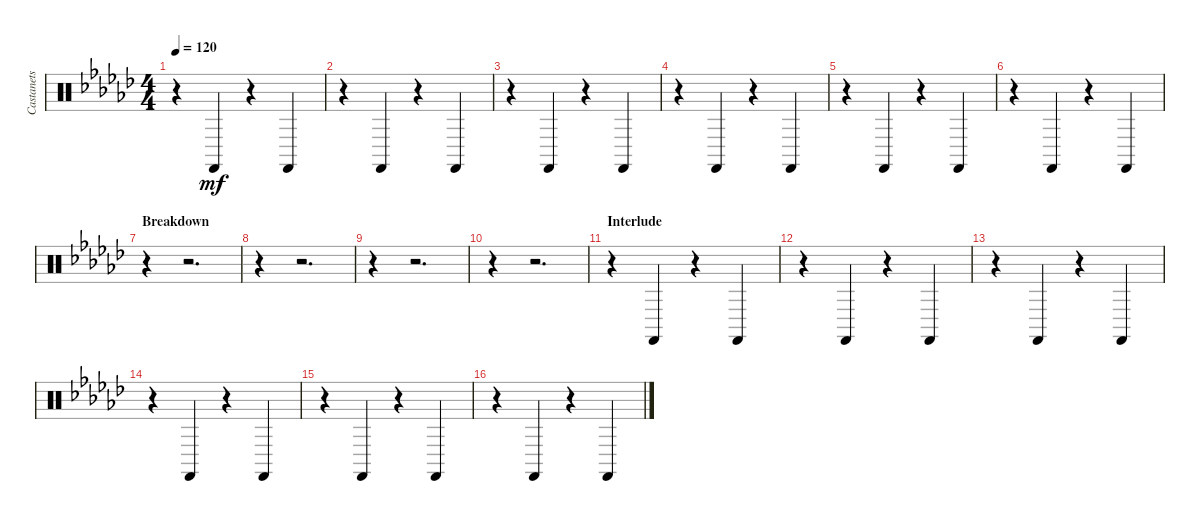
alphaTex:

\track ("Castanets" "Castanets") {instrument percussion}
\staff {score}
\articulation defaults
\ts (4 4)
\tempo 120
\clef neutral
\ks ebminor
r.4{dy mf} "Castanets (hit)".4 r.4 "Castanets (hit)".4 |
r.4 "Castanets (hit)".4 r.4 "Castanets (hit)".4 |
r.4 "Castanets (hit)".4 r.4 "Castanets (hit)".4 |
r.4 "Castanets (hit)".4 r.4 "Castanets (hit)".4 |
r.4 "Castanets (hit)".4 r.4 "Castanets (hit)".4 |
r.4 "Castanets (hit)".4 r.4 "Castanets (hit)".4 |
\section ("" "Breakdown")
r.4 r.2{d} |
r.4 r.2{d} |
r.4 r.2{d} |
r.4 r.2{d} |
\section ("" "Interlude")
r.4 "Castanets (hit)".4 r.4 "Castanets (hit)".4 |
r.4 "Castanets (hit)".4 r.4 "Castanets (hit)".4 |
r.4 "Castanets (hit)".4 r.4 "Castanets (hit)".4 |
r.4 "Castanets (hit)".4 r.4 "Castanets (hit)".4 |
r.4 "Castanets (hit)".4 r.4 "Castanets (hit)".4 |
r.4 "Castanets (hit)".4 r.4 "Castanets (hit)".4
